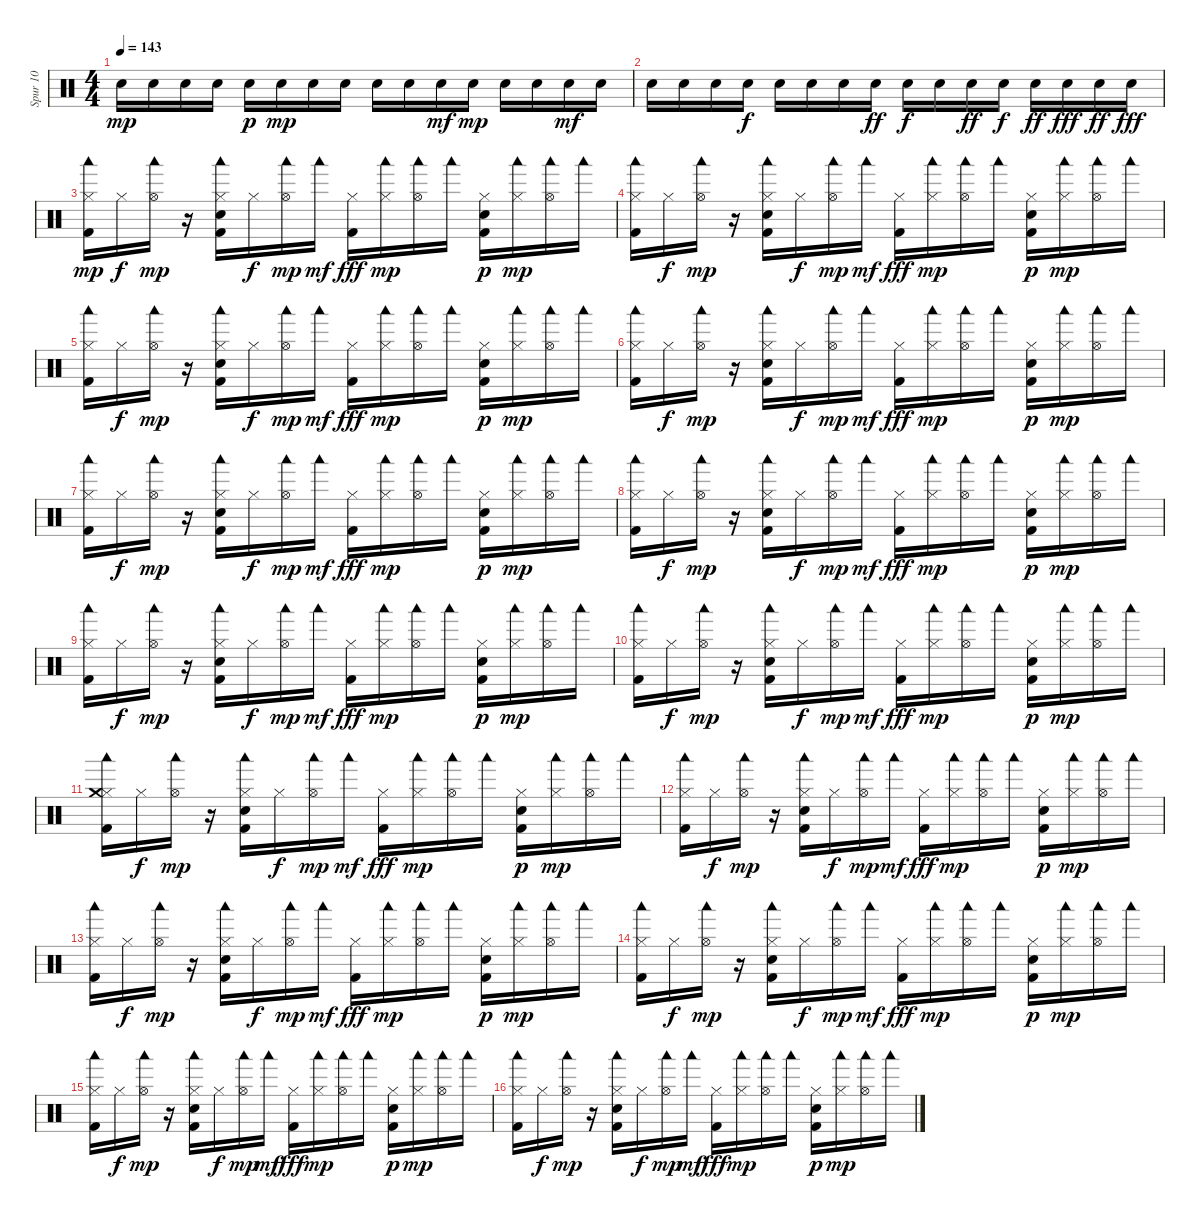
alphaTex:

\track ("Spur 10" "Spur 10") {instrument percussion}
\staff {score}
\articulation defaults
\ts (4 4)
\tempo 143
\clef neutral
\ks c "Snare (hit) 2".16{dy mp} "Snare (hit) 2".16 "Snare (hit) 2".16 "Snare (hit) 2".16 "Snare (hit) 2".16{dy p} "Snare (hit) 2".16{dy mp} "Snare (hit) 2".16 "Snare (hit) 2".16 "Snare (hit) 2".16 "Snare (hit) 2".16 "Snare (hit) 2".16{dy mf} "Snare (hit) 2".16{dy mp} "Snare (hit) 2".16 "Snare (hit) 2".16 "Snare (hit) 2".16{dy mf} "Snare (hit) 2".16
|
"Snare (hit) 2".16 "Snare (hit) 2".16 "Snare (hit) 2".16 "Snare (hit) 2".16{dy f} "Snare (hit) 2".16 "Snare (hit) 2".16 "Snare (hit) 2".16 "Snare (hit) 2".16{dy ff} "Snare (hit) 2".16{dy f} "Snare (hit) 2".16 "Snare (hit) 2".16{dy ff} "Snare (hit) 2".16{dy f} "Snare (hit) 2".16{dy ff} "Snare (hit) 2".16{dy fff} "Snare (hit) 2".16{dy ff} "Snare (hit) 2".16{dy fff} |
("Hi-Hat (closed)" "Kick (hit) 2" "Woodblock low (hit)").16{dy mp} "Hi-Hat (closed)".16{dy f} ("Hi-Hat (open)" "Woodblock low (hit)").16{dy mp} r.16 ("Hi-Hat (closed)" "Kick (hit) 2" "Electric Snare (hit)" "Woodblock low (hit)").16 "Hi-Hat (closed)".16{dy f} ("Hi-Hat (open)" "Woodblock low (hit)").16{dy mp} "Woodblock low (hit)".16{dy mf} ("Hi-Hat (closed)" "Kick (hit) 2").16{dy fff} ("Hi-Hat (closed)" "Woodblock low (hit)").16{dy mp} ("Hi-Hat (open)" "Woodblock low (hit)").16 "Woodblock low (hit)".16 ("Hi-Hat (closed)" "Kick (hit) 2" "Electric Snare (hit)").16{dy p} ("Hi-Hat (closed)" "Woodblock low (hit)").16{dy mp} ("Hi-Hat (open)" "Woodblock low (hit)").16 "Woodblock low (hit)".16 |
("Hi-Hat (closed)" "Kick (hit) 2" "Woodblock low (hit)").16 "Hi-Hat (closed)".16{dy f} ("Hi-Hat (open)" "Woodblock low (hit)").16{dy mp} r.16 ("Hi-Hat (closed)" "Kick (hit) 2" "Electric Snare (hit)" "Woodblock low (hit)").16 "Hi-Hat (closed)".16{dy f} ("Hi-Hat (open)" "Woodblock low (hit)").16{dy mp} "Woodblock low (hit)".16{dy mf} ("Hi-Hat (closed)" "Kick (hit) 2").16{dy fff} ("Hi-Hat (closed)" "Woodblock low (hit)").16{dy mp} ("Hi-Hat (open)" "Woodblock low (hit)").16 "Woodblock low (hit)".16 ("Hi-Hat (closed)" "Kick (hit) 2" "Electric Snare (hit)").16{dy p} ("Hi-Hat (closed)" "Woodblock low (hit)").16{dy mp} ("Hi-Hat (open)" "Woodblock low (hit)").16 "Woodblock low (hit)".16 |
("Kick (hit) 2" "Hi-Hat (closed)" "Woodblock low (hit)").16 "Hi-Hat (closed)".16{dy f} ("Hi-Hat (open)" "Woodblock low (hit)").16{dy mp} r.16 ("Kick (hit) 2" "Hi-Hat (closed)" "Electric Snare (hit)" "Woodblock low (hit)").16 "Hi-Hat (closed)".16{dy f} ("Hi-Hat (open)" "Woodblock low (hit)").16{dy mp} "Woodblock low (hit)".16{dy mf} ("Kick (hit) 2" "Hi-Hat (closed)").16{dy fff} ("Hi-Hat (closed)" "Woodblock low (hit)").16{dy mp} ("Hi-Hat (open)" "Woodblock low (hit)").16 "Woodblock low (hit)".16 ("Kick (hit) 2" "Hi-Hat (closed)" "Electric Snare (hit)").16{dy p} ("Hi-Hat (closed)" "Woodblock low (hit)").16{dy mp} ("Hi-Hat (open)" "Woodblock low (hit)").16 "Woodblock low (hit)".16 |
("Hi-Hat (closed)" "Kick (hit) 2" "Woodblock low (hit)").16 "Hi-Hat (closed)".16{dy f} ("Hi-Hat (open)" "Woodblock low (hit)").16{dy mp} r.16 ("Hi-Hat (closed)" "Kick (hit) 2" "Electric Snare (hit)" "Woodblock low (hit)").16 "Hi-Hat (closed)".16{dy f} ("Hi-Hat (open)" "Woodblock low (hit)").16{dy mp} "Woodblock low (hit)".16{dy mf} ("Hi-Hat (closed)" "Kick (hit) 2").16{dy fff} ("Hi-Hat (closed)" "Woodblock low (hit)").16{dy mp} ("Hi-Hat (open)" "Woodblock low (hit)").16 "Woodblock low (hit)".16 ("Hi-Hat (closed)" "Kick (hit) 2" "Electric Snare (hit)").16{dy p} ("Hi-Hat (closed)" "Woodblock low (hit)").16{dy mp} ("Hi-Hat (open)" "Woodblock low (hit)").16 "Woodblock low (hit)".16 |
("Hi-Hat (closed)" "Kick (hit) 2" "Woodblock low (hit)").16 "Hi-Hat (closed)".16{dy f} ("Hi-Hat (open)" "Woodblock low (hit)").16{dy mp} r.16 ("Hi-Hat (closed)" "Kick (hit) 2" "Electric Snare (hit)" "Woodblock low (hit)").16 "Hi-Hat (closed)".16{dy f} ("Hi-Hat (open)" "Woodblock low (hit)").16{dy mp} "Woodblock low (hit)".16{dy mf} ("Hi-Hat (closed)" "Kick (hit) 2").16{dy fff} ("Hi-Hat (closed)" "Woodblock low (hit)").16{dy mp} ("Hi-Hat (open)" "Woodblock low (hit)").16 "Woodblock low (hit)".16 ("Hi-Hat (closed)" "Kick (hit) 2" "Electric Snare (hit)").16{dy p} ("Hi-Hat (closed)" "Woodblock low (hit)").16{dy mp} ("Hi-Hat (open)" "Woodblock low (hit)").16 "Woodblock low (hit)".16 |
("Kick (hit) 2" "Hi-Hat (closed)" "Woodblock low (hit)").16 "Hi-Hat (closed)".16{dy f} ("Hi-Hat (open)" "Woodblock low (hit)").16{dy mp} r.16 ("Kick (hit) 2" "Hi-Hat (closed)" "Electric Snare (hit)" "Woodblock low (hit)").16 "Hi-Hat (closed)".16{dy f} ("Hi-Hat (open)" "Woodblock low (hit)").16{dy mp} "Woodblock low (hit)".16{dy mf} ("Kick (hit) 2" "Hi-Hat (closed)").16{dy fff} ("Hi-Hat (closed)" "Woodblock low (hit)").16{dy mp} ("Hi-Hat (open)" "Woodblock low (hit)").16 "Woodblock low (hit)".16 ("Kick (hit) 2" "Hi-Hat (closed)" "Electric Snare (hit)").16{dy p} ("Hi-Hat (closed)" "Woodblock low (hit)").16{dy mp} ("Hi-Hat (open)" "Woodblock low (hit)").16 "Woodblock low (hit)".16 |
("Kick (hit) 2" "Hi-Hat (closed)" "Woodblock low (hit)").16 "Hi-Hat (closed)".16{dy f} ("Hi-Hat (open)" "Woodblock low (hit)").16{dy mp} r.16 ("Kick (hit) 2" "Hi-Hat (closed)" "Electric Snare (hit)" "Woodblock low (hit)").16 "Hi-Hat (closed)".16{dy f} ("Hi-Hat (open)" "Woodblock low (hit)").16{dy mp} "Woodblock low (hit)".16{dy mf} ("Kick (hit) 2" "Hi-Hat (closed)").16{dy fff} ("Hi-Hat (closed)" "Woodblock low (hit)").16{dy mp} ("Hi-Hat (open)" "Woodblock low (hit)").16 "Woodblock low (hit)".16 ("Kick (hit) 2" "Hi-Hat (closed)" "Electric Snare (hit)").16{dy p} ("Hi-Hat (closed)" "Woodblock low (hit)").16{dy mp} ("Hi-Hat (open)" "Woodblock low (hit)").16 "Woodblock low (hit)".16 |
("Kick (hit) 2" "Hi-Hat (closed)" "Woodblock low (hit)").16 "Hi-Hat (closed)".16{dy f} ("Hi-Hat (open)" "Woodblock low (hit)").16{dy mp} r.16 ("Kick (hit) 2" "Hi-Hat (closed)" "Electric Snare (hit)" "Woodblock low (hit)").16 "Hi-Hat (closed)".16{dy f} ("Hi-Hat (open)" "Woodblock low (hit)").16{dy mp} "Woodblock low (hit)".16{dy mf} ("Kick (hit) 2" "Hi-Hat (closed)").16{dy fff} ("Hi-Hat (closed)" "Woodblock low (hit)").16{dy mp} ("Hi-Hat (open)" "Woodblock low (hit)").16 "Woodblock low (hit)".16 ("Kick (hit) 2" "Hi-Hat (closed)" "Electric Snare (hit)").16{dy p} ("Hi-Hat (closed)" "Woodblock low (hit)").16{dy mp} ("Hi-Hat (open)" "Woodblock low (hit)").16 "Woodblock low (hit)".16 |
("Hi-Hat (closed)" "Kick (hit) 2" "Crash medium (hit)" "Woodblock low (hit)").16 "Hi-Hat (closed)".16{dy f} ("Hi-Hat (open)" "Woodblock low (hit)").16{dy mp} r.16 ("Hi-Hat (closed)" "Kick (hit) 2" "Electric Snare (hit)" "Woodblock low (hit)").16 "Hi-Hat (closed)".16{dy f} ("Hi-Hat (open)" "Woodblock low (hit)").16{dy mp} "Woodblock low (hit)".16{dy mf} ("Hi-Hat (closed)" "Kick (hit) 2").16{dy fff} ("Hi-Hat (closed)" "Woodblock low (hit)").16{dy mp} ("Hi-Hat (open)" "Woodblock low (hit)").16 "Woodblock low (hit)".16 ("Hi-Hat (closed)" "Kick (hit) 2" "Electric Snare (hit)").16{dy p} ("Hi-Hat (closed)" "Woodblock low (hit)").16{dy mp} ("Hi-Hat (open)" "Woodblock low (hit)").16 "Woodblock low (hit)".16 |
("Hi-Hat (closed)" "Kick (hit) 2" "Woodblock low (hit)").16 "Hi-Hat (closed)".16{dy f} ("Hi-Hat (open)" "Woodblock low (hit)").16{dy mp} r.16 ("Hi-Hat (closed)" "Kick (hit) 2" "Electric Snare (hit)" "Woodblock low (hit)").16 "Hi-Hat (closed)".16{dy f} ("Hi-Hat (open)" "Woodblock low (hit)").16{dy mp} "Woodblock low (hit)".16{dy mf} ("Hi-Hat (closed)" "Kick (hit) 2").16{dy fff} ("Hi-Hat (closed)" "Woodblock low (hit)").16{dy mp} ("Hi-Hat (open)" "Woodblock low (hit)").16 "Woodblock low (hit)".16 ("Hi-Hat (closed)" "Kick (hit) 2" "Electric Snare (hit)").16{dy p} ("Hi-Hat (closed)" "Woodblock low (hit)").16{dy mp} ("Hi-Hat (open)" "Woodblock low (hit)").16 "Woodblock low (hit)".16 |
("Kick (hit) 2" "Hi-Hat (closed)" "Woodblock low (hit)").16 "Hi-Hat (closed)".16{dy f} ("Hi-Hat (open)" "Woodblock low (hit)").16{dy mp} r.16 ("Kick (hit) 2" "Hi-Hat (closed)" "Electric Snare (hit)" "Woodblock low (hit)").16 "Hi-Hat (closed)".16{dy f} ("Hi-Hat (open)" "Woodblock low (hit)").16{dy mp} "Woodblock low (hit)".16{dy mf} ("Kick (hit) 2" "Hi-Hat (closed)").16{dy fff} ("Hi-Hat (closed)" "Woodblock low (hit)").16{dy mp} ("Hi-Hat (open)" "Woodblock low (hit)").16 "Woodblock low (hit)".16 ("Kick (hit) 2" "Hi-Hat (closed)" "Electric Snare (hit)").16{dy p} ("Hi-Hat (closed)" "Woodblock low (hit)").16{dy mp} ("Hi-Hat (open)" "Woodblock low (hit)").16 "Woodblock low (hit)".16 |
("Hi-Hat (closed)" "Kick (hit) 2" "Woodblock low (hit)").16 "Hi-Hat (closed)".16{dy f} ("Hi-Hat (open)" "Woodblock low (hit)").16{dy mp} r.16 ("Hi-Hat (closed)" "Kick (hit) 2" "Electric Snare (hit)" "Woodblock low (hit)").16 "Hi-Hat (closed)".16{dy f} ("Hi-Hat (open)" "Woodblock low (hit)").16{dy mp} "Woodblock low (hit)".16{dy mf} ("Hi-Hat (closed)" "Kick (hit) 2").16{dy fff} ("Hi-Hat (closed)" "Woodblock low (hit)").16{dy mp} ("Hi-Hat (open)" "Woodblock low (hit)").16 "Woodblock low (hit)".16 ("Hi-Hat (closed)" "Kick (hit) 2" "Electric Snare (hit)").16{dy p} ("Hi-Hat (closed)" "Woodblock low (hit)").16{dy mp} ("Hi-Hat (open)" "Woodblock low (hit)").16 "Woodblock low (hit)".16 |
("Hi-Hat (closed)" "Kick (hit) 2" "Woodblock low (hit)").16 "Hi-Hat (closed)".16{dy f} ("Hi-Hat (open)" "Woodblock low (hit)").16{dy mp} r.16 ("Hi-Hat (closed)" "Kick (hit) 2" "Electric Snare (hit)" "Woodblock low (hit)").16 "Hi-Hat (closed)".16{dy f} ("Hi-Hat (open)" "Woodblock low (hit)").16{dy mp} "Woodblock low (hit)".16{dy mf} ("Hi-Hat (closed)" "Kick (hit) 2").16{dy fff} ("Hi-Hat (closed)" "Woodblock low (hit)").16{dy mp} ("Hi-Hat (open)" "Woodblock low (hit)").16 "Woodblock low (hit)".16 ("Hi-Hat (closed)" "Kick (hit) 2" "Electric Snare (hit)").16{dy p} ("Hi-Hat (closed)" "Woodblock low (hit)").16{dy mp} ("Hi-Hat (open)" "Woodblock low (hit)").16 "Woodblock low (hit)".16 |
("Hi-Hat (closed)" "Kick (hit) 2" "Woodblock low (hit)").16 "Hi-Hat (closed)".16{dy f} ("Hi-Hat (open)" "Woodblock low (hit)").16{dy mp} r.16 ("Hi-Hat (closed)" "Kick (hit) 2" "Electric Snare (hit)" "Woodblock low (hit)").16 "Hi-Hat (closed)".16{dy f} ("Hi-Hat (open)" "Woodblock low (hit)").16{dy mp} "Woodblock low (hit)".16{dy mf} ("Hi-Hat (closed)" "Kick (hit) 2").16{dy fff} ("Hi-Hat (closed)" "Woodblock low (hit)").16{dy mp} ("Hi-Hat (open)" "Woodblock low (hit)").16 "Woodblock low (hit)".16 ("Hi-Hat (closed)" "Kick (hit) 2" "Electric Snare (hit)").16{dy p} ("Hi-Hat (closed)" "Woodblock low (hit)").16{dy mp} ("Hi-Hat (open)" "Woodblock low (hit)").16 "Woodblock low (hit)".16
